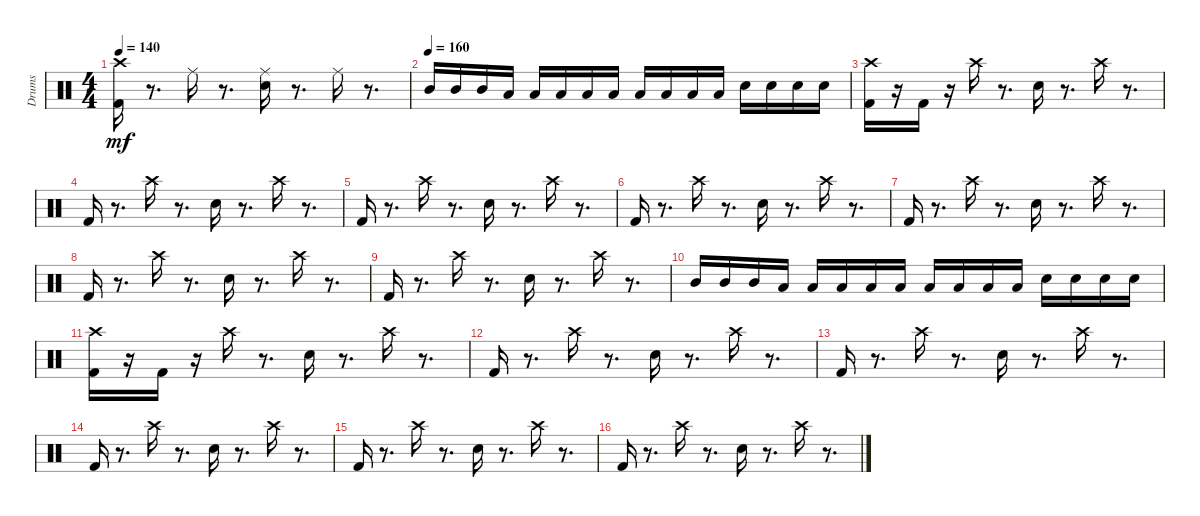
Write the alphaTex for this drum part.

\track ("Drums               " "Drums     ") {instrument percussion}
\staff {score}
\articulation defaults
\ts (4 4)
\tempo 140
\clef neutral
\ks c
("Kick (hit) 2" "Crash high (hit)").16{dy mf} r.8{d} "Ride (middle)".16 r.8{d} ("Snare (hit) 2" "Ride (middle)").16 r.8{d} "Ride (middle)".16 r.8{d} |
\tempo (160)
"Mid Tom (hit)".16 "Mid Tom (hit)".16 "Mid Tom (hit)".16 "Low Tom (hit)".16 "Low Tom (hit)".16 "Low Tom (hit)".16 "Low Floor Tom (hit)".16 "Low Floor Tom (hit)".16 "Low Floor Tom (hit)".16 "Low Tom (hit)".16 "Low Tom (hit)".16 "Low Tom (hit)".16 "Snare (hit) 2".16 "Snare (hit) 2".16 "Snare (hit) 2".16 "Snare (hit) 2".16 |
("Kick (hit) 2" "Crash high (hit)").16 r.16 "Kick (hit) 2".16 r.16 "Crash high (hit)".16 r.8{d} "Snare (hit) 2".16 r.8{d} "Crash high (hit)".16 r.8{d} |
"Kick (hit) 2".16 r.8{d} "Crash high (hit)".16 r.8{d} "Snare (hit) 2".16 r.8{d} "Crash high (hit)".16 r.8{d} |
"Kick (hit) 2".16 r.8{d} "Crash high (hit)".16 r.8{d} "Snare (hit) 2".16 r.8{d} "Crash high (hit)".16 r.8{d} |
"Kick (hit) 2".16 r.8{d} "Crash high (hit)".16 r.8{d} "Snare (hit) 2".16 r.8{d} "Crash high (hit)".16 r.8{d} |
"Kick (hit) 2".16 r.8{d} "Crash high (hit)".16 r.8{d} "Snare (hit) 2".16 r.8{d} "Crash high (hit)".16 r.8{d} |
"Kick (hit) 2".16 r.8{d} "Crash high (hit)".16 r.8{d} "Snare (hit) 2".16 r.8{d} "Crash high (hit)".16 r.8{d} |
"Kick (hit) 2".16 r.8{d} "Crash high (hit)".16 r.8{d} "Snare (hit) 2".16 r.8{d} "Crash high (hit)".16 r.8{d} |
"Mid Tom (hit)".16 "Mid Tom (hit)".16 "Mid Tom (hit)".16 "Low Tom (hit)".16 "Low Tom (hit)".16 "Low Tom (hit)".16 "Low Floor Tom (hit)".16 "Low Floor Tom (hit)".16 "Low Floor Tom (hit)".16 "Low Tom (hit)".16 "Low Tom (hit)".16 "Low Tom (hit)".16 "Snare (hit) 2".16 "Snare (hit) 2".16 "Snare (hit) 2".16 "Snare (hit) 2".16 |
("Kick (hit) 2" "Crash high (hit)").16 r.16 "Kick (hit) 2".16 r.16 "Crash high (hit)".16 r.8{d} "Snare (hit) 2".16 r.8{d} "Crash high (hit)".16 r.8{d} |
"Kick (hit) 2".16 r.8{d} "Crash high (hit)".16 r.8{d} "Snare (hit) 2".16 r.8{d} "Crash high (hit)".16 r.8{d} |
"Kick (hit) 2".16 r.8{d} "Crash high (hit)".16 r.8{d} "Snare (hit) 2".16 r.8{d} "Crash high (hit)".16 r.8{d} |
"Kick (hit) 2".16 r.8{d} "Crash high (hit)".16 r.8{d} "Snare (hit) 2".16 r.8{d} "Crash high (hit)".16 r.8{d} |
"Kick (hit) 2".16 r.8{d} "Crash high (hit)".16 r.8{d} "Snare (hit) 2".16 r.8{d} "Crash high (hit)".16 r.8{d} |
"Kick (hit) 2".16 r.8{d} "Crash high (hit)".16 r.8{d} "Snare (hit) 2".16 r.8{d} "Crash high (hit)".16 r.8{d}
